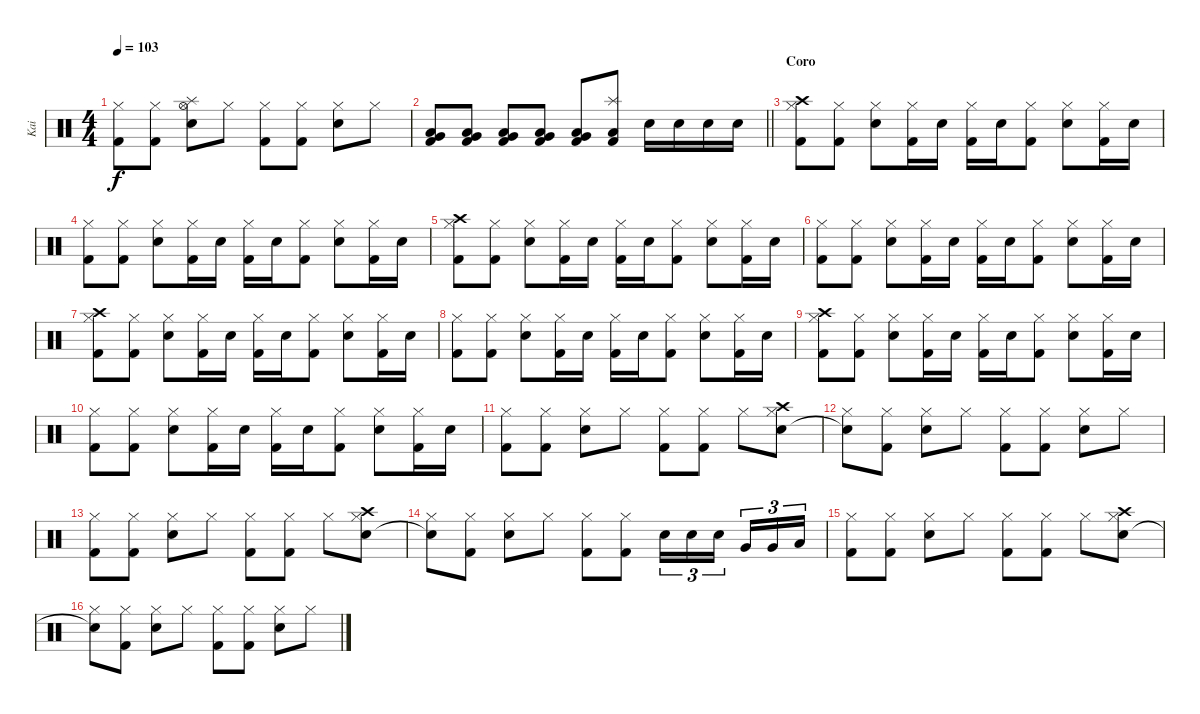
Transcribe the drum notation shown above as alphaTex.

\track ("Kai" "Kai") {instrument percussion}
\staff {score}
\articulation defaults
\ts (4 4)
\tempo 103
\clef neutral
\ks c
("Hi-Hat (closed)" "Kick (hit) 2").8{dy f} ("Hi-Hat (closed)" "Kick (hit) 2").8 ("Splash (hit)" "Hi-Hat (open)" "Electric Snare (hit)").8 "Hi-Hat (closed)".8 ("Hi-Hat (closed)" "Kick (hit) 2").8 ("Hi-Hat (closed)" "Kick (hit) 2").8 ("Hi-Hat (closed)" "Electric Snare (hit)").8 "Hi-Hat (closed)".8 |
\barLineRight lightlight
("Kick (hit) 2" "Very Low Tom (hit)" "Low Floor Tom (hit)").8 ("Kick (hit) 2" "Very Low Tom (hit)" "Low Floor Tom (hit)").8 ("Kick (hit) 2" "Very Low Tom (hit)" "Low Floor Tom (hit)").8 ("Kick (hit) 2" "Very Low Tom (hit)" "Low Floor Tom (hit)").8 ("Kick (hit) 2" "Very Low Tom (hit)" "Low Floor Tom (hit)").8 ("Splash (hit)" "Kick (hit) 2" "Low Floor Tom (hit)").8 "Electric Snare (hit)".16 "Electric Snare (hit)".16 "Electric Snare (hit)".16 "Electric Snare (hit)".16 |
\section ("" "Coro")
("Crash high (hit)" "Hi-Hat (closed)" "Kick (hit) 2").8 ("Hi-Hat (closed)" "Kick (hit) 2").8 ("Hi-Hat (closed)" "Electric Snare (hit)").8 ("Hi-Hat (closed)" "Kick (hit) 2").16 "Electric Snare (hit)".16 ("Hi-Hat (closed)" "Kick (hit) 2").16 "Electric Snare (hit)".16 ("Hi-Hat (closed)" "Kick (hit) 2").8 ("Hi-Hat (closed)" "Electric Snare (hit)").8 ("Hi-Hat (closed)" "Kick (hit) 2").16 "Electric Snare (hit)".16 |
("Hi-Hat (closed)" "Kick (hit) 2").8 ("Hi-Hat (closed)" "Kick (hit) 2").8 ("Hi-Hat (closed)" "Electric Snare (hit)").8 ("Hi-Hat (closed)" "Kick (hit) 2").16 "Electric Snare (hit)".16 ("Hi-Hat (closed)" "Kick (hit) 2").16 "Electric Snare (hit)".16 ("Hi-Hat (closed)" "Kick (hit) 2").8 ("Hi-Hat (closed)" "Electric Snare (hit)").8 ("Hi-Hat (closed)" "Kick (hit) 2").16 "Electric Snare (hit)".16 |
("Crash high (hit)" "Hi-Hat (closed)" "Kick (hit) 2").8 ("Hi-Hat (closed)" "Kick (hit) 2").8 ("Hi-Hat (closed)" "Electric Snare (hit)").8 ("Hi-Hat (closed)" "Kick (hit) 2").16 "Electric Snare (hit)".16 ("Hi-Hat (closed)" "Kick (hit) 2").16 "Electric Snare (hit)".16 ("Hi-Hat (closed)" "Kick (hit) 2").8 ("Hi-Hat (closed)" "Electric Snare (hit)").8 ("Hi-Hat (closed)" "Kick (hit) 2").16 "Electric Snare (hit)".16 |
("Hi-Hat (closed)" "Kick (hit) 2").8 ("Hi-Hat (closed)" "Kick (hit) 2").8 ("Hi-Hat (closed)" "Electric Snare (hit)").8 ("Hi-Hat (closed)" "Kick (hit) 2").16 "Electric Snare (hit)".16 ("Hi-Hat (closed)" "Kick (hit) 2").16 "Electric Snare (hit)".16 ("Hi-Hat (closed)" "Kick (hit) 2").8 ("Hi-Hat (closed)" "Electric Snare (hit)").8 ("Hi-Hat (closed)" "Kick (hit) 2").16 "Electric Snare (hit)".16 |
("Crash high (hit)" "Hi-Hat (closed)" "Kick (hit) 2").8 ("Hi-Hat (closed)" "Kick (hit) 2").8 ("Hi-Hat (closed)" "Electric Snare (hit)").8 ("Hi-Hat (closed)" "Kick (hit) 2").16 "Electric Snare (hit)".16 ("Hi-Hat (closed)" "Kick (hit) 2").16 "Electric Snare (hit)".16 ("Hi-Hat (closed)" "Kick (hit) 2").8 ("Hi-Hat (closed)" "Electric Snare (hit)").8 ("Hi-Hat (closed)" "Kick (hit) 2").16 "Electric Snare (hit)".16 |
("Hi-Hat (closed)" "Kick (hit) 2").8 ("Hi-Hat (closed)" "Kick (hit) 2").8 ("Hi-Hat (closed)" "Electric Snare (hit)").8 ("Hi-Hat (closed)" "Kick (hit) 2").16 "Electric Snare (hit)".16 ("Hi-Hat (closed)" "Kick (hit) 2").16 "Electric Snare (hit)".16 ("Hi-Hat (closed)" "Kick (hit) 2").8 ("Hi-Hat (closed)" "Electric Snare (hit)").8 ("Hi-Hat (closed)" "Kick (hit) 2").16 "Electric Snare (hit)".16 |
("Crash high (hit)" "Hi-Hat (closed)" "Kick (hit) 2").8 ("Hi-Hat (closed)" "Kick (hit) 2").8 ("Hi-Hat (closed)" "Electric Snare (hit)").8 ("Hi-Hat (closed)" "Kick (hit) 2").16 "Electric Snare (hit)".16 ("Hi-Hat (closed)" "Kick (hit) 2").16 "Electric Snare (hit)".16 ("Hi-Hat (closed)" "Kick (hit) 2").8 ("Hi-Hat (closed)" "Electric Snare (hit)").8 ("Hi-Hat (closed)" "Kick (hit) 2").16 "Electric Snare (hit)".16 |
("Hi-Hat (closed)" "Kick (hit) 2").8 ("Hi-Hat (closed)" "Kick (hit) 2").8 ("Hi-Hat (closed)" "Electric Snare (hit)").8 ("Hi-Hat (closed)" "Kick (hit) 2").16 "Electric Snare (hit)".16 ("Hi-Hat (closed)" "Kick (hit) 2").16 "Electric Snare (hit)".16 ("Hi-Hat (closed)" "Kick (hit) 2").8 ("Hi-Hat (closed)" "Electric Snare (hit)").8 ("Hi-Hat (closed)" "Kick (hit) 2").16 "Electric Snare (hit)".16 |
("Hi-Hat (closed)" "Kick (hit) 2").8 ("Hi-Hat (closed)" "Kick (hit) 2").8 ("Hi-Hat (closed)" "Electric Snare (hit)").8 "Hi-Hat (closed)".8 ("Hi-Hat (closed)" "Kick (hit) 2").8 ("Hi-Hat (closed)" "Kick (hit) 2").8 "Hi-Hat (closed)".8 ("Electric Snare (hit)" "Crash high (hit)" "Hi-Hat (closed)").8 |
("Snare (hit)"{t} "Hi-Hat (closed)").8 ("Hi-Hat (closed)" "Kick (hit) 2").8 ("Hi-Hat (closed)" "Electric Snare (hit)").8 "Hi-Hat (closed)".8 ("Hi-Hat (closed)" "Kick (hit) 2").8 ("Hi-Hat (closed)" "Kick (hit) 2").8 ("Hi-Hat (closed)" "Electric Snare (hit)").8 "Hi-Hat (closed)".8 |
("Hi-Hat (closed)" "Kick (hit) 2").8 ("Hi-Hat (closed)" "Kick (hit) 2").8 ("Hi-Hat (closed)" "Electric Snare (hit)").8 "Hi-Hat (closed)".8 ("Hi-Hat (closed)" "Kick (hit) 2").8 ("Hi-Hat (closed)" "Kick (hit) 2").8 "Hi-Hat (closed)".8 ("Electric Snare (hit)" "Crash high (hit)" "Hi-Hat (closed)").8 |
("Snare (hit)"{t} "Hi-Hat (closed)").8 ("Hi-Hat (closed)" "Kick (hit) 2").8 ("Hi-Hat (closed)" "Electric Snare (hit)").8 "Hi-Hat (closed)".8 ("Hi-Hat (closed)" "Kick (hit) 2").8 ("Hi-Hat (closed)" "Kick (hit) 2").8 "Electric Snare (hit)".16{tu (3 2)} "Electric Snare (hit)".16{tu (3 2)} "Electric Snare (hit)".16{tu (3 2) beam splitsecondary} "Very Low Tom (hit)".16{tu (3 2)} "Very Low Tom (hit)".16{tu (3 2)} "Low Floor Tom (hit)".16{tu (3 2)} |
("Hi-Hat (closed)" "Kick (hit) 2").8 ("Hi-Hat (closed)" "Kick (hit) 2").8 ("Hi-Hat (closed)" "Electric Snare (hit)").8 "Hi-Hat (closed)".8 ("Hi-Hat (closed)" "Kick (hit) 2").8 ("Hi-Hat (closed)" "Kick (hit) 2").8 "Hi-Hat (closed)".8 ("Electric Snare (hit)" "Crash high (hit)" "Hi-Hat (closed)").8 |
("Snare (hit)"{t} "Hi-Hat (closed)").8 ("Hi-Hat (closed)" "Kick (hit) 2").8 ("Hi-Hat (closed)" "Electric Snare (hit)").8 "Hi-Hat (closed)".8 ("Hi-Hat (closed)" "Kick (hit) 2").8 ("Hi-Hat (closed)" "Kick (hit) 2").8 ("Hi-Hat (closed)" "Electric Snare (hit)").8 "Hi-Hat (closed)".8
